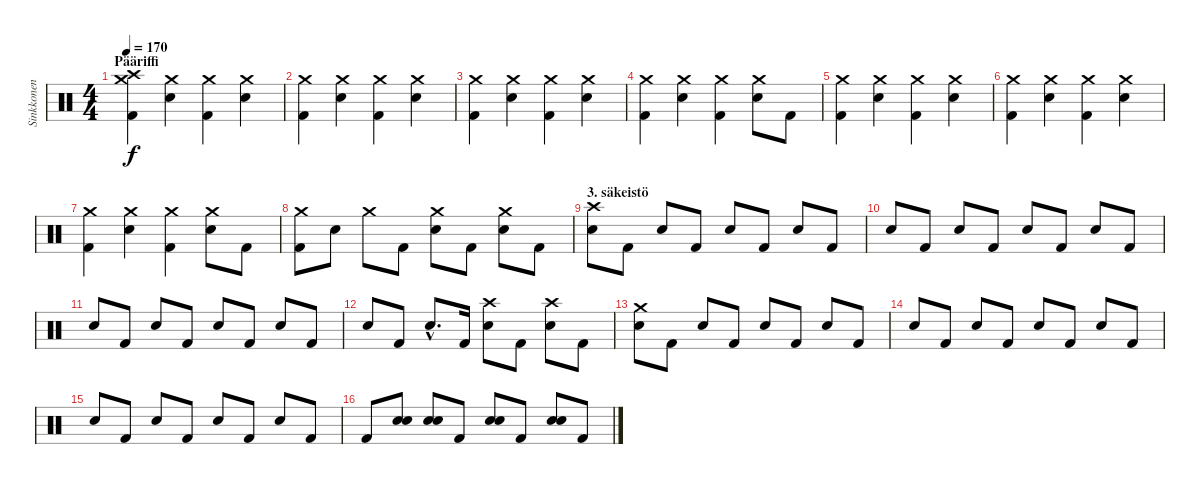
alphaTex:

\track ("Sinkkonen" "Sinkkonen") {instrument percussion}
\staff {score}
\articulation defaults
\ts (4 4)
\section ("" "Pääriffi")
\tempo 170
\clef neutral
\ks c
("Crash medium (hit)" "Crash high (hit)" "Kick (hit) 2").4{dy f} ("Crash medium (hit)" "Electric Snare (hit)").4 ("Crash medium (hit)" "Kick (hit) 2").4 ("Crash medium (hit)" "Electric Snare (hit)").4 |
("Crash medium (hit)" "Kick (hit) 2").4 ("Crash medium (hit)" "Electric Snare (hit)").4 ("Crash medium (hit)" "Kick (hit) 2").4 ("Crash medium (hit)" "Electric Snare (hit)").4 |
("Crash medium (hit)" "Kick (hit) 2").4 ("Crash medium (hit)" "Electric Snare (hit)").4 ("Crash medium (hit)" "Kick (hit) 2").4 ("Crash medium (hit)" "Electric Snare (hit)").4 |
("Crash medium (hit)" "Kick (hit) 2").4 ("Crash medium (hit)" "Electric Snare (hit)").4 ("Crash medium (hit)" "Kick (hit) 2").4 ("Crash medium (hit)" "Electric Snare (hit)").8 "Kick (hit) 2".8 |
("Crash medium (hit)" "Kick (hit) 2").4 ("Crash medium (hit)" "Electric Snare (hit)").4 ("Crash medium (hit)" "Kick (hit) 2").4 ("Crash medium (hit)" "Electric Snare (hit)").4 |
("Crash medium (hit)" "Kick (hit) 2").4 ("Crash medium (hit)" "Electric Snare (hit)").4 ("Crash medium (hit)" "Kick (hit) 2").4 ("Crash medium (hit)" "Electric Snare (hit)").4 |
("Crash medium (hit)" "Kick (hit) 2").4 ("Crash medium (hit)" "Electric Snare (hit)").4 ("Crash medium (hit)" "Kick (hit) 2").4 ("Crash medium (hit)" "Electric Snare (hit)").8 "Kick (hit) 2".8 |
("Crash medium (hit)" "Kick (hit) 2").8 "Electric Snare (hit)".8 "Crash medium (hit)".8 "Kick (hit) 2".8 ("Crash medium (hit)" "Electric Snare (hit)").8 "Kick (hit) 2".8 ("Crash medium (hit)" "Electric Snare (hit)").8 "Kick (hit) 2".8 |
\section ("" "3. säkeistö")
("Crash high (hit)" "Electric Snare (hit)").8 "Kick (hit) 2".8 "Electric Snare (hit)".8 "Kick (hit) 2".8 "Electric Snare (hit)".8 "Kick (hit) 2".8 "Electric Snare (hit)".8 "Kick (hit) 2".8 |
"Electric Snare (hit)".8 "Kick (hit) 2".8 "Electric Snare (hit)".8 "Kick (hit) 2".8 "Electric Snare (hit)".8 "Kick (hit) 2".8 "Electric Snare (hit)".8 "Kick (hit) 2".8 |
"Electric Snare (hit)".8 "Kick (hit) 2".8 "Electric Snare (hit)".8 "Kick (hit) 2".8 "Electric Snare (hit)".8 "Kick (hit) 2".8 "Electric Snare (hit)".8 "Kick (hit) 2".8 |
"Electric Snare (hit)".8 "Kick (hit) 2".8 "Electric Snare (hit)"{hac}.8{d} "Kick (hit) 2".16 ("Crash high (hit)" "Electric Snare (hit)").8 "Kick (hit) 2".8 ("Crash high (hit)" "Electric Snare (hit)").8 "Kick (hit) 2".8 |
("Crash medium (hit)" "Electric Snare (hit)").8 "Kick (hit) 2".8 "Electric Snare (hit)".8 "Kick (hit) 2".8 "Electric Snare (hit)".8 "Kick (hit) 2".8 "Electric Snare (hit)".8 "Kick (hit) 2".8 |
"Electric Snare (hit)".8 "Kick (hit) 2".8 "Electric Snare (hit)".8 "Kick (hit) 2".8 "Electric Snare (hit)".8 "Kick (hit) 2".8 "Electric Snare (hit)".8 "Kick (hit) 2".8 |
"Electric Snare (hit)".8 "Kick (hit) 2".8 "Electric Snare (hit)".8 "Kick (hit) 2".8 "Electric Snare (hit)".8 "Kick (hit) 2".8 "Electric Snare (hit)".8 "Kick (hit) 2".8 |
"Kick (hit) 2".8 ("Electric Snare (hit)" "Snare (hit) 2").8 ("Electric Snare (hit)" "Snare (hit) 2").8 "Kick (hit) 2".8 ("Electric Snare (hit)" "Snare (hit) 2").8 "Kick (hit) 2".8 ("Electric Snare (hit)" "Snare (hit) 2").8 "Kick (hit) 2".8
